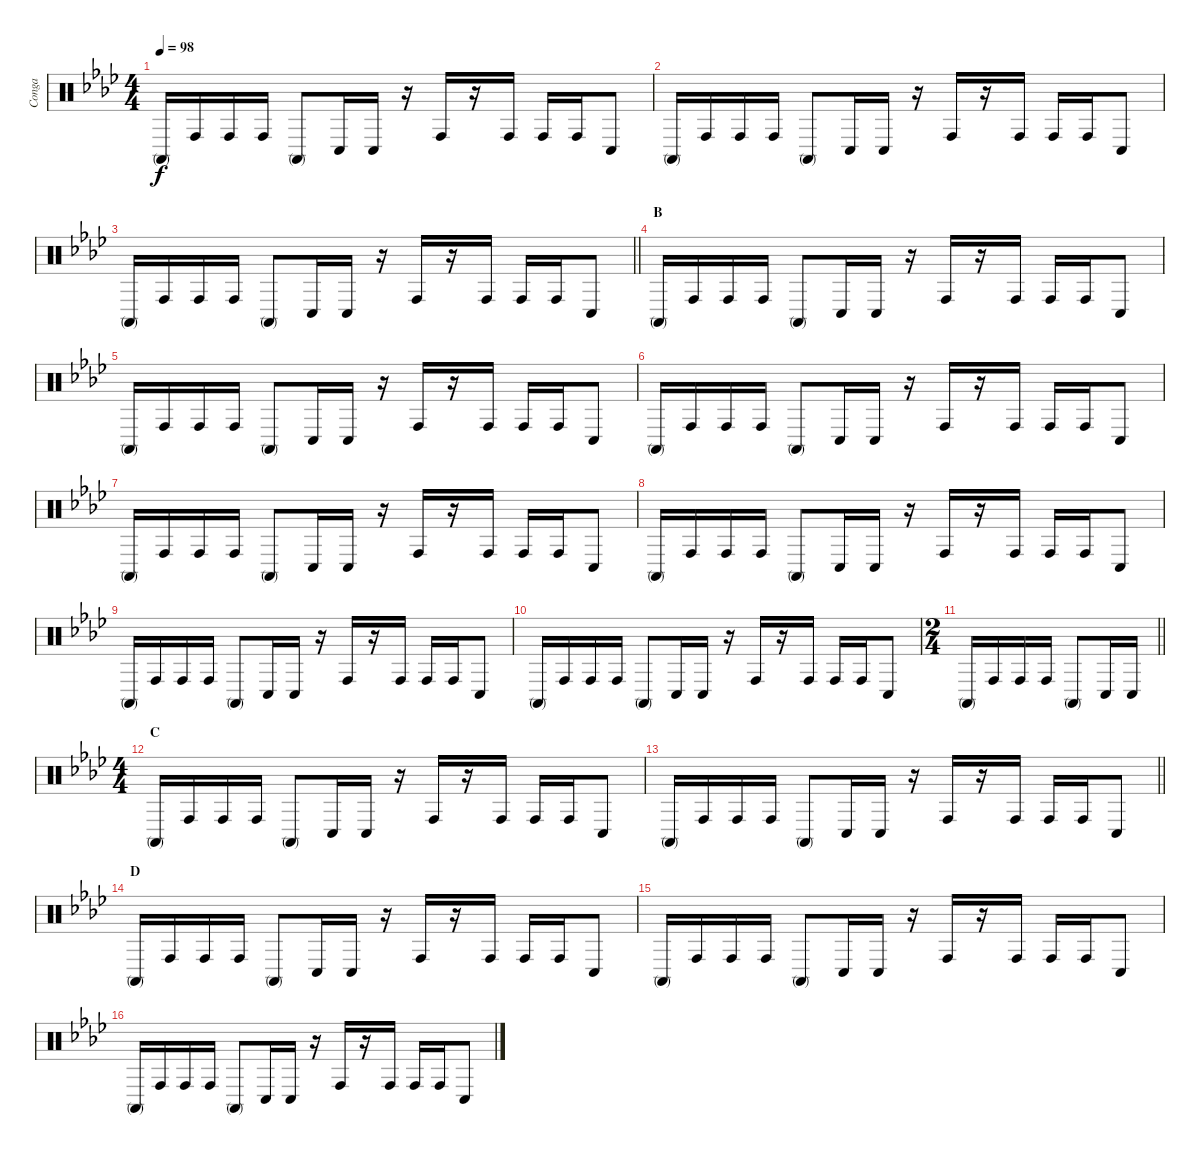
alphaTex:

\track ("Conga" "Conga") {instrument percussion}
\staff {score}
\articulation defaults
\ts (4 4)
\tempo 98
\clef neutral
\ks ab "Conga high (mute)".16{dy f} "Conga high (hit)".16 "Conga high (hit)".16 "Conga high (hit)".16 "Conga high (mute)".8 "Conga low (hit)".16 "Conga low (hit)".16
r.16 "Conga high (hit)".16 r.16 "Conga high (hit)".16 "Conga high (hit)".16 "Conga high (hit)".16 "Conga low (hit)".8 |
"Conga high (mute)".16 "Conga high (hit)".16 "Conga high (hit)".16 "Conga high (hit)".16 "Conga high (mute)".8 "Conga low (hit)".16 "Conga low (hit)".16 r.16 "Conga high (hit)".16 r.16 "Conga high (hit)".16 "Conga high (hit)".16 "Conga high (hit)".16 "Conga low (hit)".8 |
\barLineRight lightlight "Conga high (mute)".16 "Conga high (hit)".16 "Conga high (hit)".16 "Conga high (hit)".16 "Conga high (mute)".8 "Conga low (hit)".16 "Conga low (hit)".16
r.16 "Conga high (hit)".16 r.16 "Conga high (hit)".16 "Conga high (hit)".16 "Conga high (hit)".16 "Conga low (hit)".8 |
\section ("" "B")
"Conga high (mute)".16 "Conga high (hit)".16 "Conga high (hit)".16 "Conga high (hit)".16 "Conga high (mute)".8 "Conga low (hit)".16 "Conga low (hit)".16 r.16 "Conga high (hit)".16 r.16 "Conga high (hit)".16 "Conga high (hit)".16 "Conga high (hit)".16 "Conga low (hit)".8 |
"Conga high (mute)".16 "Conga high (hit)".16 "Conga high (hit)".16 "Conga high (hit)".16 "Conga high (mute)".8 "Conga low (hit)".16 "Conga low (hit)".16 r.16 "Conga high (hit)".16 r.16 "Conga high (hit)".16 "Conga high (hit)".16 "Conga high (hit)".16 "Conga low (hit)".8 |
"Conga high (mute)".16 "Conga high (hit)".16 "Conga high (hit)".16 "Conga high (hit)".16 "Conga high (mute)".8 "Conga low (hit)".16 "Conga low (hit)".16 r.16 "Conga high (hit)".16 r.16 "Conga high (hit)".16 "Conga high (hit)".16 "Conga high (hit)".16 "Conga low (hit)".8 |
"Conga high (mute)".16 "Conga high (hit)".16 "Conga high (hit)".16 "Conga high (hit)".16 "Conga high (mute)".8 "Conga low (hit)".16 "Conga low (hit)".16 r.16 "Conga high (hit)".16 r.16 "Conga high (hit)".16 "Conga high (hit)".16 "Conga high (hit)".16 "Conga low (hit)".8 |
"Conga high (mute)".16 "Conga high (hit)".16 "Conga high (hit)".16 "Conga high (hit)".16 "Conga high (mute)".8 "Conga low (hit)".16 "Conga low (hit)".16 r.16 "Conga high (hit)".16 r.16 "Conga high (hit)".16 "Conga high (hit)".16 "Conga high (hit)".16 "Conga low (hit)".8 |
"Conga high (mute)".16 "Conga high (hit)".16 "Conga high (hit)".16 "Conga high (hit)".16 "Conga high (mute)".8 "Conga low (hit)".16 "Conga low (hit)".16 r.16 "Conga high (hit)".16 r.16 "Conga high (hit)".16 "Conga high (hit)".16 "Conga high (hit)".16 "Conga low (hit)".8 |
"Conga high (mute)".16 "Conga high (hit)".16 "Conga high (hit)".16 "Conga high (hit)".16 "Conga high (mute)".8 "Conga low (hit)".16 "Conga low (hit)".16 r.16 "Conga high (hit)".16 r.16 "Conga high (hit)".16 "Conga high (hit)".16 "Conga high (hit)".16 "Conga low (hit)".8 |
\ts (2 4)
\barLineRight lightlight "Conga high (mute)".16 "Conga high (hit)".16 "Conga high (hit)".16 "Conga high (hit)".16 "Conga high (mute)".8 "Conga low (hit)".16 "Conga low (hit)".16
|
\ts (4 4)
\section ("" "C")
"Conga high (mute)".16 "Conga high (hit)".16 "Conga high (hit)".16 "Conga high (hit)".16 "Conga high (mute)".8 "Conga low (hit)".16 "Conga low (hit)".16 r.16 "Conga high (hit)".16 r.16 "Conga high (hit)".16 "Conga high (hit)".16 "Conga high (hit)".16 "Conga low (hit)".8 |
\barLineRight lightlight "Conga high (mute)".16 "Conga high (hit)".16 "Conga high (hit)".16 "Conga high (hit)".16 "Conga high (mute)".8 "Conga low (hit)".16 "Conga low (hit)".16
r.16 "Conga high (hit)".16 r.16 "Conga high (hit)".16 "Conga high (hit)".16 "Conga high (hit)".16 "Conga low (hit)".8 |
\section ("" "D")
"Conga high (mute)".16 "Conga high (hit)".16 "Conga high (hit)".16 "Conga high (hit)".16 "Conga high (mute)".8 "Conga low (hit)".16 "Conga low (hit)".16 r.16 "Conga high (hit)".16 r.16 "Conga high (hit)".16 "Conga high (hit)".16 "Conga high (hit)".16 "Conga low (hit)".8 |
"Conga high (mute)".16 "Conga high (hit)".16 "Conga high (hit)".16 "Conga high (hit)".16 "Conga high (mute)".8 "Conga low (hit)".16 "Conga low (hit)".16 r.16 "Conga high (hit)".16 r.16 "Conga high (hit)".16 "Conga high (hit)".16 "Conga high (hit)".16 "Conga low (hit)".8 |
"Conga high (mute)".16 "Conga high (hit)".16 "Conga high (hit)".16 "Conga high (hit)".16 "Conga high (mute)".8 "Conga low (hit)".16 "Conga low (hit)".16 r.16 "Conga high (hit)".16 r.16 "Conga high (hit)".16 "Conga high (hit)".16 "Conga high (hit)".16 "Conga low (hit)".8
